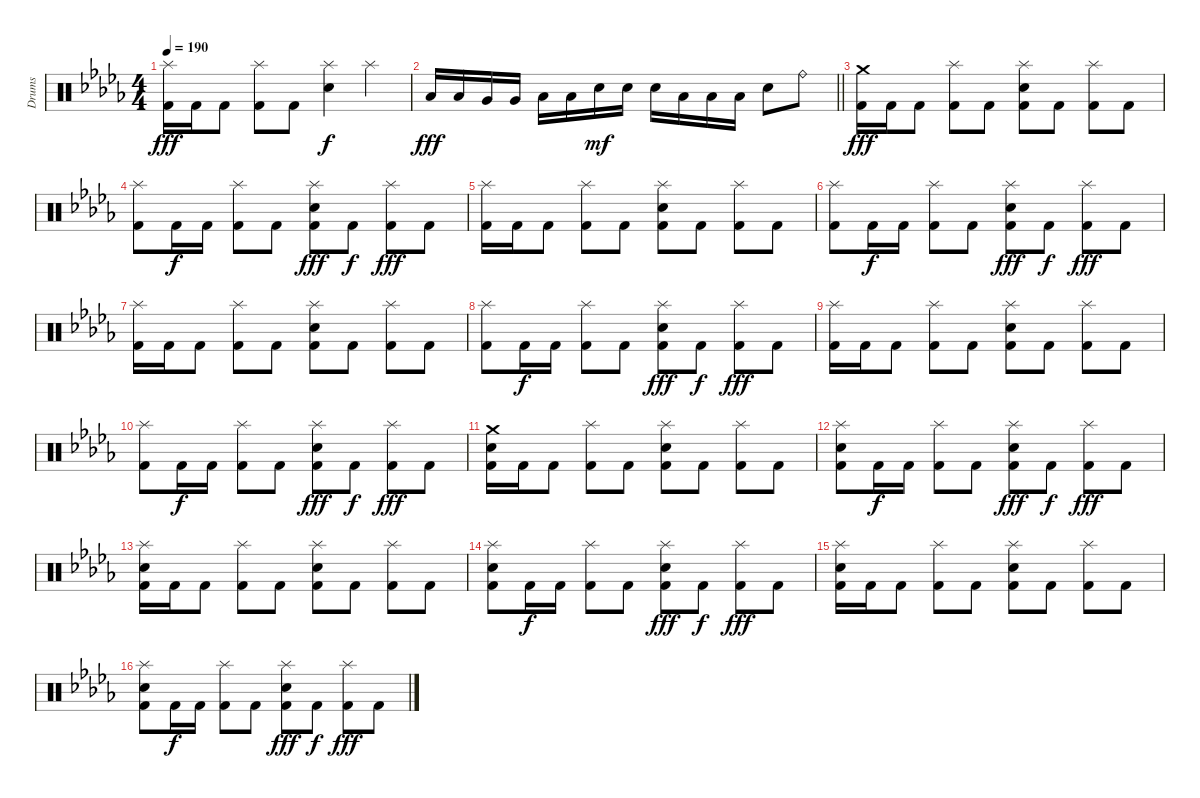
\track ("Drums" "Drums") {instrument percussion}
\staff {score}
\articulation defaults
\ts (4 4)
\tempo 190
\clef neutral
\ks db
("Splash (hit)" "Kick (hit) 2").16{dy fff} "Kick (hit) 2".16 "Kick (hit) 2".8 ("Splash (hit)" "Kick (hit) 2").8 "Kick (hit) 2".8 ("Splash (hit)" "Electric Snare (hit)").4{dy f} "Splash (hit)".4 |
\barLineRight lightlight "Low Tom (hit)".16{dy fff} "Low Tom (hit)".16 "Very Low Tom (hit)".16 "Very Low Tom (hit)".16 "Low Floor Tom (hit)".16 "Low Floor Tom (hit)".16 "Electric Snare (hit)".16{dy mf} "Electric Snare (hit)".16 "Electric Snare (hit)".16 "Low Tom (hit)".16 "Low Tom (hit)".16 "Low Tom (hit)".16 "Electric Snare (hit)".8 "Ride (bell)".8
|
("Crash medium (hit)" "Kick (hit) 2").16{dy fff} "Kick (hit) 2".16 "Kick (hit) 2".8 ("Splash (hit)" "Kick (hit) 2").8 "Kick (hit) 2".8 ("Splash (hit)" "Electric Snare (hit)" "Kick (hit) 2").8 "Kick (hit) 2".8 ("Splash (hit)" "Kick (hit) 2").8 "Kick (hit) 2".8 |
("Splash (hit)" "Kick (hit) 2").8 "Kick (hit) 2".16{dy f} "Kick (hit) 2".16 ("Splash (hit)" "Kick (hit) 2").8 "Kick (hit) 2".8 ("Splash (hit)" "Electric Snare (hit)" "Kick (hit) 2").8{dy fff} "Kick (hit) 2".8{dy f} ("Splash (hit)" "Kick (hit) 2").8{dy fff} "Kick (hit) 2".8 |
("Splash (hit)" "Kick (hit) 2").16 "Kick (hit) 2".16 "Kick (hit) 2".8 ("Splash (hit)" "Kick (hit) 2").8 "Kick (hit) 2".8 ("Splash (hit)" "Electric Snare (hit)" "Kick (hit) 2").8 "Kick (hit) 2".8 ("Splash (hit)" "Kick (hit) 2").8 "Kick (hit) 2".8 |
("Splash (hit)" "Kick (hit) 2").8 "Kick (hit) 2".16{dy f} "Kick (hit) 2".16 ("Splash (hit)" "Kick (hit) 2").8 "Kick (hit) 2".8 ("Splash (hit)" "Electric Snare (hit)" "Kick (hit) 2").8{dy fff} "Kick (hit) 2".8{dy f} ("Splash (hit)" "Kick (hit) 2").8{dy fff} "Kick (hit) 2".8 |
("Splash (hit)" "Kick (hit) 2").16 "Kick (hit) 2".16 "Kick (hit) 2".8 ("Splash (hit)" "Kick (hit) 2").8 "Kick (hit) 2".8 ("Splash (hit)" "Electric Snare (hit)" "Kick (hit) 2").8 "Kick (hit) 2".8 ("Splash (hit)" "Kick (hit) 2").8 "Kick (hit) 2".8 |
("Splash (hit)" "Kick (hit) 2").8 "Kick (hit) 2".16{dy f} "Kick (hit) 2".16 ("Splash (hit)" "Kick (hit) 2").8 "Kick (hit) 2".8 ("Splash (hit)" "Electric Snare (hit)" "Kick (hit) 2").8{dy fff} "Kick (hit) 2".8{dy f} ("Splash (hit)" "Kick (hit) 2").8{dy fff} "Kick (hit) 2".8 |
("Splash (hit)" "Kick (hit) 2").16 "Kick (hit) 2".16 "Kick (hit) 2".8 ("Splash (hit)" "Kick (hit) 2").8 "Kick (hit) 2".8 ("Splash (hit)" "Electric Snare (hit)" "Kick (hit) 2").8 "Kick (hit) 2".8 ("Splash (hit)" "Kick (hit) 2").8 "Kick (hit) 2".8 |
("Splash (hit)" "Kick (hit) 2").8 "Kick (hit) 2".16{dy f} "Kick (hit) 2".16 ("Splash (hit)" "Kick (hit) 2").8 "Kick (hit) 2".8 ("Splash (hit)" "Electric Snare (hit)" "Kick (hit) 2").8{dy fff} "Kick (hit) 2".8{dy f} ("Splash (hit)" "Kick (hit) 2").8{dy fff} "Kick (hit) 2".8 |
("Crash medium (hit)" "Electric Snare (hit)" "Kick (hit) 2").16 "Kick (hit) 2".16 "Kick (hit) 2".8 ("Splash (hit)" "Kick (hit) 2").8 "Kick (hit) 2".8 ("Splash (hit)" "Electric Snare (hit)" "Kick (hit) 2").8 "Kick (hit) 2".8 ("Splash (hit)" "Kick (hit) 2").8 "Kick (hit) 2".8 |
("Splash (hit)" "Electric Snare (hit)" "Kick (hit) 2").8 "Kick (hit) 2".16{dy f} "Kick (hit) 2".16 ("Splash (hit)" "Kick (hit) 2").8 "Kick (hit) 2".8 ("Splash (hit)" "Electric Snare (hit)" "Kick (hit) 2").8{dy fff} "Kick (hit) 2".8{dy f} ("Splash (hit)" "Kick (hit) 2").8{dy fff} "Kick (hit) 2".8 |
("Splash (hit)" "Electric Snare (hit)" "Kick (hit) 2").16 "Kick (hit) 2".16 "Kick (hit) 2".8 ("Splash (hit)" "Kick (hit) 2").8 "Kick (hit) 2".8 ("Splash (hit)" "Electric Snare (hit)" "Kick (hit) 2").8 "Kick (hit) 2".8 ("Splash (hit)" "Kick (hit) 2").8 "Kick (hit) 2".8 |
("Splash (hit)" "Electric Snare (hit)" "Kick (hit) 2").8 "Kick (hit) 2".16{dy f} "Kick (hit) 2".16 ("Splash (hit)" "Kick (hit) 2").8 "Kick (hit) 2".8 ("Splash (hit)" "Electric Snare (hit)" "Kick (hit) 2").8{dy fff} "Kick (hit) 2".8{dy f} ("Splash (hit)" "Kick (hit) 2").8{dy fff} "Kick (hit) 2".8 |
("Splash (hit)" "Electric Snare (hit)" "Kick (hit) 2").16 "Kick (hit) 2".16 "Kick (hit) 2".8 ("Splash (hit)" "Kick (hit) 2").8 "Kick (hit) 2".8 ("Splash (hit)" "Electric Snare (hit)" "Kick (hit) 2").8 "Kick (hit) 2".8 ("Splash (hit)" "Kick (hit) 2").8 "Kick (hit) 2".8 |
("Splash (hit)" "Electric Snare (hit)" "Kick (hit) 2").8 "Kick (hit) 2".16{dy f} "Kick (hit) 2".16 ("Splash (hit)" "Kick (hit) 2").8 "Kick (hit) 2".8 ("Splash (hit)" "Electric Snare (hit)" "Kick (hit) 2").8{dy fff} "Kick (hit) 2".8{dy f} ("Splash (hit)" "Kick (hit) 2").8{dy fff} "Kick (hit) 2".8
